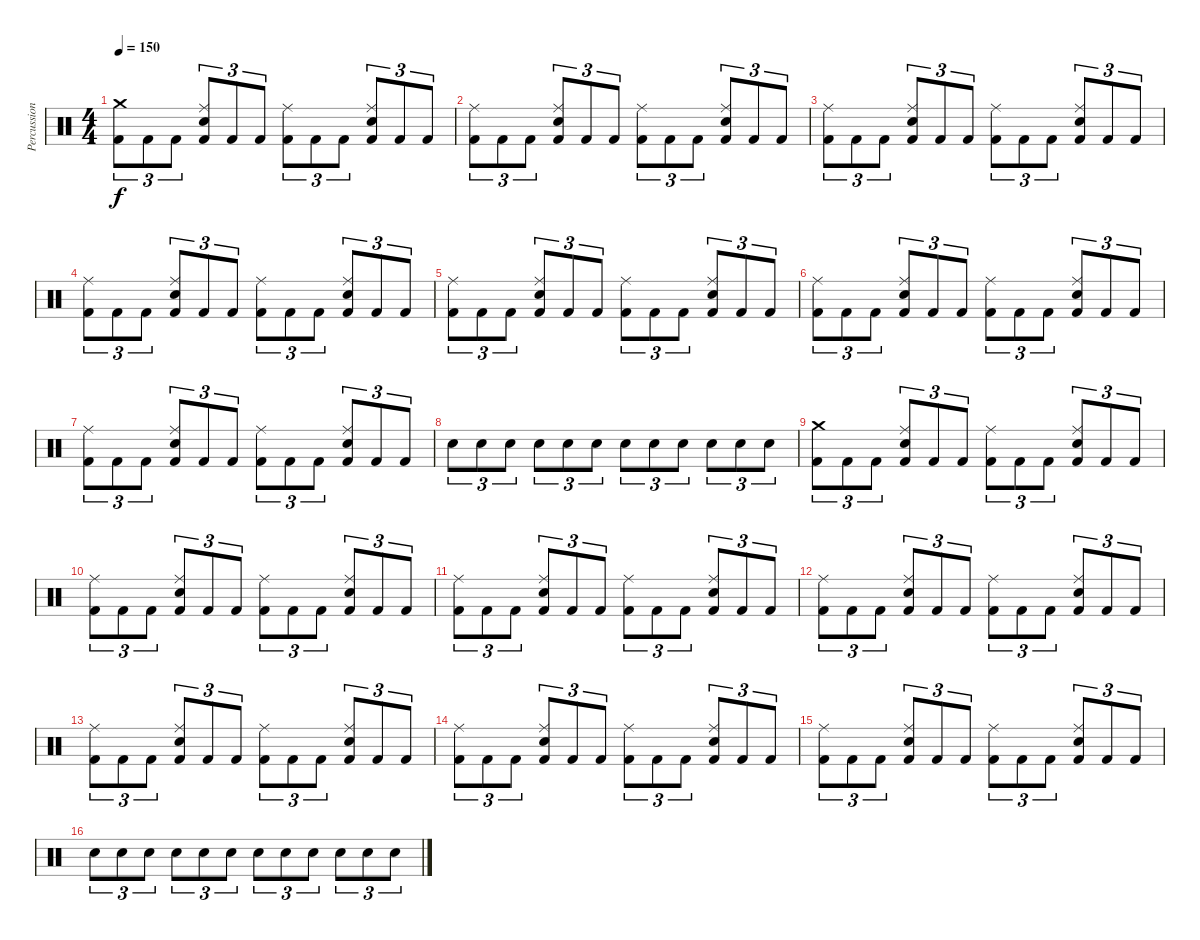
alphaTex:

\track ("Percussion" "Percussion") {instrument percussion}
\staff {score}
\articulation defaults
\ts (4 4)
\tempo 150
\clef neutral
\ks c
("Crash medium (hit)" "Kick (hit) 2").8{tu (3 2) dy f} "Kick (hit) 2".8{tu (3 2)} "Kick (hit) 2".8{tu (3 2)} ("Ride (middle)" "Electric Snare (hit)" "Kick (hit) 2").8{tu (3 2)} "Kick (hit) 2".8{tu (3 2)} "Kick (hit) 2".8{tu (3 2)} ("Ride (middle)" "Kick (hit) 2").8{tu (3 2)} "Kick (hit) 2".8{tu (3 2)} "Kick (hit) 2".8{tu (3 2)} ("Ride (middle)" "Electric Snare (hit)" "Kick (hit) 2").8{tu (3 2)} "Kick (hit) 2".8{tu (3 2)} "Kick (hit) 2".8{tu (3 2)} |
("Ride (middle)" "Kick (hit) 2").8{tu (3 2)} "Kick (hit) 2".8{tu (3 2)} "Kick (hit) 2".8{tu (3 2)} ("Ride (middle)" "Electric Snare (hit)" "Kick (hit) 2").8{tu (3 2)} "Kick (hit) 2".8{tu (3 2)} "Kick (hit) 2".8{tu (3 2)} ("Ride (middle)" "Kick (hit) 2").8{tu (3 2)} "Kick (hit) 2".8{tu (3 2)} "Kick (hit) 2".8{tu (3 2)} ("Ride (middle)" "Electric Snare (hit)" "Kick (hit) 2").8{tu (3 2)} "Kick (hit) 2".8{tu (3 2)} "Kick (hit) 2".8{tu (3 2)} |
("Ride (middle)" "Kick (hit) 2").8{tu (3 2)} "Kick (hit) 2".8{tu (3 2)} "Kick (hit) 2".8{tu (3 2)} ("Ride (middle)" "Electric Snare (hit)" "Kick (hit) 2").8{tu (3 2)} "Kick (hit) 2".8{tu (3 2)} "Kick (hit) 2".8{tu (3 2)} ("Ride (middle)" "Kick (hit) 2").8{tu (3 2)} "Kick (hit) 2".8{tu (3 2)} "Kick (hit) 2".8{tu (3 2)} ("Ride (middle)" "Electric Snare (hit)" "Kick (hit) 2").8{tu (3 2)} "Kick (hit) 2".8{tu (3 2)} "Kick (hit) 2".8{tu (3 2)} |
("Ride (middle)" "Kick (hit) 2").8{tu (3 2)} "Kick (hit) 2".8{tu (3 2)} "Kick (hit) 2".8{tu (3 2)} ("Ride (middle)" "Electric Snare (hit)" "Kick (hit) 2").8{tu (3 2)} "Kick (hit) 2".8{tu (3 2)} "Kick (hit) 2".8{tu (3 2)} ("Ride (middle)" "Kick (hit) 2").8{tu (3 2)} "Kick (hit) 2".8{tu (3 2)} "Kick (hit) 2".8{tu (3 2)} ("Ride (middle)" "Electric Snare (hit)" "Kick (hit) 2").8{tu (3 2)} "Kick (hit) 2".8{tu (3 2)} "Kick (hit) 2".8{tu (3 2)} |
("Ride (middle)" "Kick (hit) 2").8{tu (3 2)} "Kick (hit) 2".8{tu (3 2)} "Kick (hit) 2".8{tu (3 2)} ("Ride (middle)" "Electric Snare (hit)" "Kick (hit) 2").8{tu (3 2)} "Kick (hit) 2".8{tu (3 2)} "Kick (hit) 2".8{tu (3 2)} ("Ride (middle)" "Kick (hit) 2").8{tu (3 2)} "Kick (hit) 2".8{tu (3 2)} "Kick (hit) 2".8{tu (3 2)} ("Ride (middle)" "Electric Snare (hit)" "Kick (hit) 2").8{tu (3 2)} "Kick (hit) 2".8{tu (3 2)} "Kick (hit) 2".8{tu (3 2)} |
("Ride (middle)" "Kick (hit) 2").8{tu (3 2)} "Kick (hit) 2".8{tu (3 2)} "Kick (hit) 2".8{tu (3 2)} ("Ride (middle)" "Electric Snare (hit)" "Kick (hit) 2").8{tu (3 2)} "Kick (hit) 2".8{tu (3 2)} "Kick (hit) 2".8{tu (3 2)} ("Ride (middle)" "Kick (hit) 2").8{tu (3 2)} "Kick (hit) 2".8{tu (3 2)} "Kick (hit) 2".8{tu (3 2)} ("Ride (middle)" "Electric Snare (hit)" "Kick (hit) 2").8{tu (3 2)} "Kick (hit) 2".8{tu (3 2)} "Kick (hit) 2".8{tu (3 2)} |
("Ride (middle)" "Kick (hit) 2").8{tu (3 2)} "Kick (hit) 2".8{tu (3 2)} "Kick (hit) 2".8{tu (3 2)} ("Ride (middle)" "Electric Snare (hit)" "Kick (hit) 2").8{tu (3 2)} "Kick (hit) 2".8{tu (3 2)} "Kick (hit) 2".8{tu (3 2)} ("Ride (middle)" "Kick (hit) 2").8{tu (3 2)} "Kick (hit) 2".8{tu (3 2)} "Kick (hit) 2".8{tu (3 2)} ("Ride (middle)" "Electric Snare (hit)" "Kick (hit) 2").8{tu (3 2)} "Kick (hit) 2".8{tu (3 2)} "Kick (hit) 2".8{tu (3 2)} |
"Electric Snare (hit)".8{tu (3 2)} "Electric Snare (hit)".8{tu (3 2)} "Electric Snare (hit)".8{tu (3 2)} "Electric Snare (hit)".8{tu (3 2)} "Electric Snare (hit)".8{tu (3 2)} "Electric Snare (hit)".8{tu (3 2)} "Electric Snare (hit)".8{tu (3 2)} "Electric Snare (hit)".8{tu (3 2)} "Electric Snare (hit)".8{tu (3 2)} "Electric Snare (hit)".8{tu (3 2)} "Electric Snare (hit)".8{tu (3 2)} "Electric Snare (hit)".8{tu (3 2)} |
("Crash medium (hit)" "Kick (hit) 2").8{tu (3 2)} "Kick (hit) 2".8{tu (3 2)} "Kick (hit) 2".8{tu (3 2)} ("Ride (middle)" "Electric Snare (hit)" "Kick (hit) 2").8{tu (3 2)} "Kick (hit) 2".8{tu (3 2)} "Kick (hit) 2".8{tu (3 2)} ("Ride (middle)" "Kick (hit) 2").8{tu (3 2)} "Kick (hit) 2".8{tu (3 2)} "Kick (hit) 2".8{tu (3 2)} ("Ride (middle)" "Electric Snare (hit)" "Kick (hit) 2").8{tu (3 2)} "Kick (hit) 2".8{tu (3 2)} "Kick (hit) 2".8{tu (3 2)} |
("Ride (middle)" "Kick (hit) 2").8{tu (3 2)} "Kick (hit) 2".8{tu (3 2)} "Kick (hit) 2".8{tu (3 2)} ("Ride (middle)" "Electric Snare (hit)" "Kick (hit) 2").8{tu (3 2)} "Kick (hit) 2".8{tu (3 2)} "Kick (hit) 2".8{tu (3 2)} ("Ride (middle)" "Kick (hit) 2").8{tu (3 2)} "Kick (hit) 2".8{tu (3 2)} "Kick (hit) 2".8{tu (3 2)} ("Ride (middle)" "Electric Snare (hit)" "Kick (hit) 2").8{tu (3 2)} "Kick (hit) 2".8{tu (3 2)} "Kick (hit) 2".8{tu (3 2)} |
("Ride (middle)" "Kick (hit) 2").8{tu (3 2)} "Kick (hit) 2".8{tu (3 2)} "Kick (hit) 2".8{tu (3 2)} ("Ride (middle)" "Electric Snare (hit)" "Kick (hit) 2").8{tu (3 2)} "Kick (hit) 2".8{tu (3 2)} "Kick (hit) 2".8{tu (3 2)} ("Ride (middle)" "Kick (hit) 2").8{tu (3 2)} "Kick (hit) 2".8{tu (3 2)} "Kick (hit) 2".8{tu (3 2)} ("Ride (middle)" "Electric Snare (hit)" "Kick (hit) 2").8{tu (3 2)} "Kick (hit) 2".8{tu (3 2)} "Kick (hit) 2".8{tu (3 2)} |
("Ride (middle)" "Kick (hit) 2").8{tu (3 2)} "Kick (hit) 2".8{tu (3 2)} "Kick (hit) 2".8{tu (3 2)} ("Ride (middle)" "Electric Snare (hit)" "Kick (hit) 2").8{tu (3 2)} "Kick (hit) 2".8{tu (3 2)} "Kick (hit) 2".8{tu (3 2)} ("Ride (middle)" "Kick (hit) 2").8{tu (3 2)} "Kick (hit) 2".8{tu (3 2)} "Kick (hit) 2".8{tu (3 2)} ("Ride (middle)" "Electric Snare (hit)" "Kick (hit) 2").8{tu (3 2)} "Kick (hit) 2".8{tu (3 2)} "Kick (hit) 2".8{tu (3 2)} |
("Ride (middle)" "Kick (hit) 2").8{tu (3 2)} "Kick (hit) 2".8{tu (3 2)} "Kick (hit) 2".8{tu (3 2)} ("Ride (middle)" "Electric Snare (hit)" "Kick (hit) 2").8{tu (3 2)} "Kick (hit) 2".8{tu (3 2)} "Kick (hit) 2".8{tu (3 2)} ("Ride (middle)" "Kick (hit) 2").8{tu (3 2)} "Kick (hit) 2".8{tu (3 2)} "Kick (hit) 2".8{tu (3 2)} ("Ride (middle)" "Electric Snare (hit)" "Kick (hit) 2").8{tu (3 2)} "Kick (hit) 2".8{tu (3 2)} "Kick (hit) 2".8{tu (3 2)} |
("Ride (middle)" "Kick (hit) 2").8{tu (3 2)} "Kick (hit) 2".8{tu (3 2)} "Kick (hit) 2".8{tu (3 2)} ("Ride (middle)" "Electric Snare (hit)" "Kick (hit) 2").8{tu (3 2)} "Kick (hit) 2".8{tu (3 2)} "Kick (hit) 2".8{tu (3 2)} ("Ride (middle)" "Kick (hit) 2").8{tu (3 2)} "Kick (hit) 2".8{tu (3 2)} "Kick (hit) 2".8{tu (3 2)} ("Ride (middle)" "Electric Snare (hit)" "Kick (hit) 2").8{tu (3 2)} "Kick (hit) 2".8{tu (3 2)} "Kick (hit) 2".8{tu (3 2)} |
("Ride (middle)" "Kick (hit) 2").8{tu (3 2)} "Kick (hit) 2".8{tu (3 2)} "Kick (hit) 2".8{tu (3 2)} ("Ride (middle)" "Electric Snare (hit)" "Kick (hit) 2").8{tu (3 2)} "Kick (hit) 2".8{tu (3 2)} "Kick (hit) 2".8{tu (3 2)} ("Ride (middle)" "Kick (hit) 2").8{tu (3 2)} "Kick (hit) 2".8{tu (3 2)} "Kick (hit) 2".8{tu (3 2)} ("Ride (middle)" "Electric Snare (hit)" "Kick (hit) 2").8{tu (3 2)} "Kick (hit) 2".8{tu (3 2)} "Kick (hit) 2".8{tu (3 2)} |
"Electric Snare (hit)".8{tu (3 2)} "Electric Snare (hit)".8{tu (3 2)} "Electric Snare (hit)".8{tu (3 2)} "Electric Snare (hit)".8{tu (3 2)} "Electric Snare (hit)".8{tu (3 2)} "Electric Snare (hit)".8{tu (3 2)} "Electric Snare (hit)".8{tu (3 2)} "Electric Snare (hit)".8{tu (3 2)} "Electric Snare (hit)".8{tu (3 2)} "Electric Snare (hit)".8{tu (3 2)} "Electric Snare (hit)".8{tu (3 2)} "Electric Snare (hit)".8{tu (3 2)}
